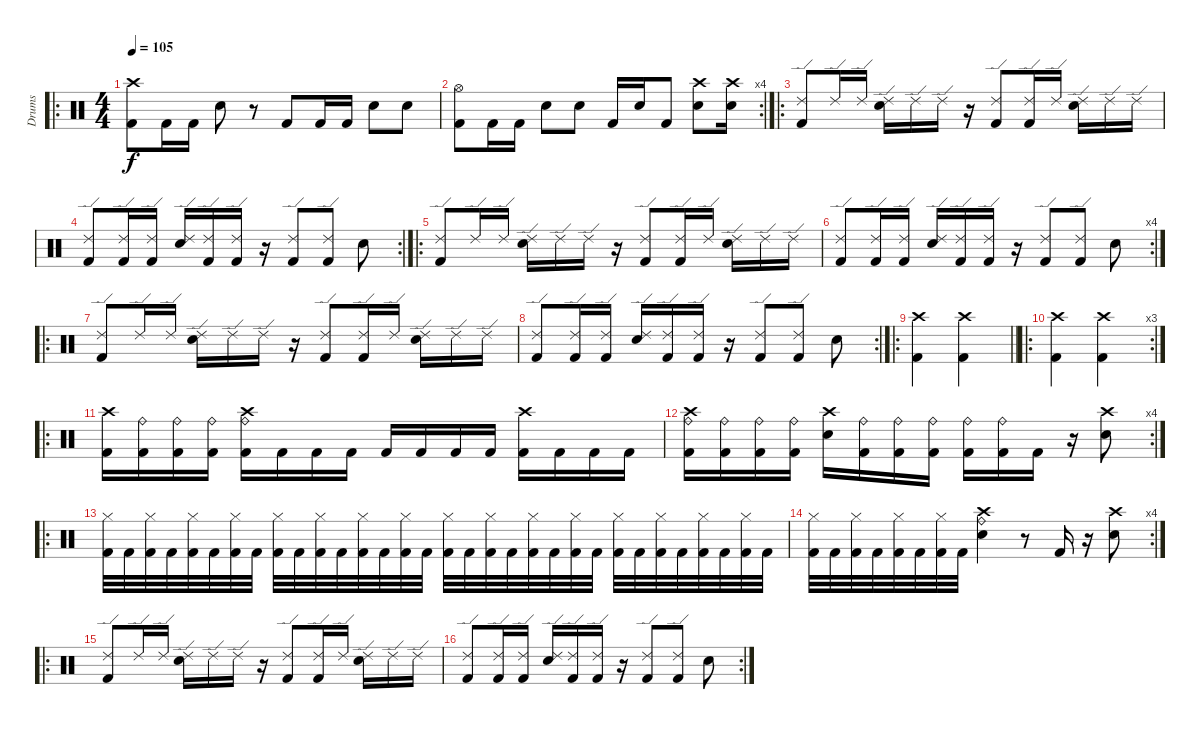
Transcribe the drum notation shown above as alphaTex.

\track ("Drums" "Drums") {instrument percussion}
\staff {score}
\articulation defaults
\ro
\ts (4 4)
\tempo 105
\clef neutral
\ks c
("Crash high (hit)" "Kick (hit) 2").8{dy f} "Kick (hit) 2".16 "Kick (hit) 2".16 "Electric Snare (hit)".8 r.8 "Kick (hit) 2".8 "Kick (hit) 2".16 "Kick (hit) 2".16 "Electric Snare (hit)".8 "Electric Snare (hit)".8 |
\rc 4
("Hi-Hat (open)" "Kick (hit) 2").8 "Kick (hit) 2".16 "Kick (hit) 2".16 "Electric Snare (hit)".8 "Electric Snare (hit)".8 "Kick (hit) 2".16 "Electric Snare (hit)".16 "Kick (hit) 2".8 ("Crash high (hit)" "Electric Snare (hit)").8 ("Crash high (hit)" "Electric Snare (hit)").16 |
\ro
("Kick (hit) 2" "Ride (edge) 2").8 "Ride (edge) 2".16 "Ride (edge) 2".16 ("Electric Snare (hit)" "Ride (edge) 2").16 "Ride (edge) 2".16 "Ride (edge) 2".16 r.16 ("Kick (hit) 2" "Ride (edge) 2").8 ("Kick (hit) 2" "Ride (edge) 2").16 "Ride (edge) 2".16 ("Electric Snare (hit)" "Ride (edge) 2").16 "Ride (edge) 2".16 "Ride (edge) 2".16 |
\rc 2
("Kick (hit) 2" "Ride (edge) 2").8 ("Kick (hit) 2" "Ride (edge) 2").16 ("Kick (hit) 2" "Ride (edge) 2").16 ("Electric Snare (hit)" "Ride (edge) 2").16 ("Kick (hit) 2" "Ride (edge) 2").16 ("Kick (hit) 2" "Ride (edge) 2").16 r.16 ("Ride (edge) 2" "Kick (hit) 2").8 ("Ride (edge) 2" "Kick (hit) 2").8 "Electric Snare (hit)".8 |
\ro
("Kick (hit) 2" "Ride (edge) 2").8 "Ride (edge) 2".16 "Ride (edge) 2".16 ("Electric Snare (hit)" "Ride (edge) 2").16 "Ride (edge) 2".16 "Ride (edge) 2".16 r.16 ("Kick (hit) 2" "Ride (edge) 2").8 ("Kick (hit) 2" "Ride (edge) 2").16 "Ride (edge) 2".16 ("Electric Snare (hit)" "Ride (edge) 2").16 "Ride (edge) 2".16 "Ride (edge) 2".16 |
\rc 4
("Kick (hit) 2" "Ride (edge) 2").8 ("Kick (hit) 2" "Ride (edge) 2").16 ("Kick (hit) 2" "Ride (edge) 2").16 ("Electric Snare (hit)" "Ride (edge) 2").16 ("Kick (hit) 2" "Ride (edge) 2").16 ("Kick (hit) 2" "Ride (edge) 2").16 r.16 ("Ride (edge) 2" "Kick (hit) 2").8 ("Ride (edge) 2" "Kick (hit) 2").8 "Electric Snare (hit)".8 |
\ro
("Kick (hit) 2" "Ride (edge) 2").8 "Ride (edge) 2".16 "Ride (edge) 2".16 ("Electric Snare (hit)" "Ride (edge) 2").16 "Ride (edge) 2".16 "Ride (edge) 2".16 r.16 ("Kick (hit) 2" "Ride (edge) 2").8 ("Kick (hit) 2" "Ride (edge) 2").16 "Ride (edge) 2".16 ("Electric Snare (hit)" "Ride (edge) 2").16 "Ride (edge) 2".16 "Ride (edge) 2".16 |
\rc 2
("Kick (hit) 2" "Ride (edge) 2").8 ("Kick (hit) 2" "Ride (edge) 2").16 ("Kick (hit) 2" "Ride (edge) 2").16 ("Electric Snare (hit)" "Ride (edge) 2").16 ("Kick (hit) 2" "Ride (edge) 2").16 ("Kick (hit) 2" "Ride (edge) 2").16 r.16 ("Ride (edge) 2" "Kick (hit) 2").8 ("Ride (edge) 2" "Kick (hit) 2").8 "Electric Snare (hit)".8 |
\ro
\barLineRight lightlight
("Crash high (hit)" "Kick (hit) 2").4 ("Crash high (hit)" "Kick (hit) 2").4 |
\ro
\rc 3
("Crash high (hit)" "Kick (hit) 2").4 ("Crash high (hit)" "Kick (hit) 2").4 |
\ro
("Crash high (hit)" "Kick (hit) 2").16 ("Kick (hit) 2" "Ride (bell)").16 ("Kick (hit) 2" "Ride (bell)").16 ("Kick (hit) 2" "Ride (bell)").16 ("Crash high (hit)" "Kick (hit) 2" "Ride (bell)").16 "Kick (hit) 2".16 "Kick (hit) 2".16 "Kick (hit) 2".16 "Kick (hit) 2".16 "Kick (hit) 2".16 "Kick (hit) 2".16 "Kick (hit) 2".16 ("Crash high (hit)" "Kick (hit) 2").16 "Kick (hit) 2".16 "Kick (hit) 2".16 "Kick (hit) 2".16 |
\rc 4
("Crash high (hit)" "Ride (bell)" "Kick (hit) 2").16 ("Ride (bell)" "Kick (hit) 2").16 ("Ride (bell)" "Kick (hit) 2").16 ("Ride (bell)" "Kick (hit) 2").16 ("Electric Snare (hit)" "Crash high (hit)").16 ("Kick (hit) 2" "Ride (bell)").16 ("Kick (hit) 2" "Ride (bell)").16 ("Kick (hit) 2" "Ride (bell)").16 ("Kick (hit) 2" "Ride (bell)").16 ("Kick (hit) 2" "Ride (bell)").16 "Kick (hit) 2".16 r.16 ("Electric Snare (hit)" "Crash high (hit)").8 |
\ro
("Hi-Hat (closed)" "Kick (hit) 2").32 "Kick (hit) 2".32 ("Hi-Hat (closed)" "Kick (hit) 2").32 "Kick (hit) 2".32 ("Hi-Hat (closed)" "Kick (hit) 2").32 "Kick (hit) 2".32 ("Hi-Hat (closed)" "Kick (hit) 2").32 "Kick (hit) 2".32 ("Hi-Hat (closed)" "Kick (hit) 2").32 "Kick (hit) 2".32 ("Hi-Hat (closed)" "Kick (hit) 2").32 "Kick (hit) 2".32 ("Hi-Hat (closed)" "Kick (hit) 2").32 "Kick (hit) 2".32 ("Hi-Hat (closed)" "Kick (hit) 2").32 "Kick (hit) 2".32 ("Hi-Hat (closed)" "Kick (hit) 2").32 "Kick (hit) 2".32 ("Hi-Hat (closed)" "Kick (hit) 2").32 "Kick (hit) 2".32 ("Hi-Hat (closed)" "Kick (hit) 2").32 "Kick (hit) 2".32 ("Hi-Hat (closed)" "Kick (hit) 2").32 "Kick (hit) 2".32 ("Hi-Hat (closed)" "Kick (hit) 2").32 "Kick (hit) 2".32 ("Hi-Hat (closed)" "Kick (hit) 2").32 "Kick (hit) 2".32 ("Hi-Hat (closed)" "Kick (hit) 2").32 "Kick (hit) 2".32 ("Hi-Hat (closed)" "Kick (hit) 2").32 "Kick (hit) 2".32 |
\rc 4
("Hi-Hat (closed)" "Kick (hit) 2").32 "Kick (hit) 2".32 ("Hi-Hat (closed)" "Kick (hit) 2").32 "Kick (hit) 2".32 ("Hi-Hat (closed)" "Kick (hit) 2").32 "Kick (hit) 2".32 ("Hi-Hat (closed)" "Kick (hit) 2").32 "Kick (hit) 2".32 ("Electric Snare (hit)" "Ride (bell)" "Crash high (hit)").4 r.8 "Kick (hit) 2".16 r.16 ("Electric Snare (hit)" "Crash high (hit)").8 |
\ro
("Kick (hit) 2" "Ride (edge) 2").8 "Ride (edge) 2".16 "Ride (edge) 2".16 ("Electric Snare (hit)" "Ride (edge) 2").16 "Ride (edge) 2".16 "Ride (edge) 2".16 r.16 ("Kick (hit) 2" "Ride (edge) 2").8 ("Kick (hit) 2" "Ride (edge) 2").16 "Ride (edge) 2".16 ("Electric Snare (hit)" "Ride (edge) 2").16 "Ride (edge) 2".16 "Ride (edge) 2".16 |
\rc 2
("Kick (hit) 2" "Ride (edge) 2").8 ("Kick (hit) 2" "Ride (edge) 2").16 ("Kick (hit) 2" "Ride (edge) 2").16 ("Electric Snare (hit)" "Ride (edge) 2").16 ("Kick (hit) 2" "Ride (edge) 2").16 ("Kick (hit) 2" "Ride (edge) 2").16 r.16 ("Ride (edge) 2" "Kick (hit) 2").8 ("Ride (edge) 2" "Kick (hit) 2").8 "Electric Snare (hit)".8
